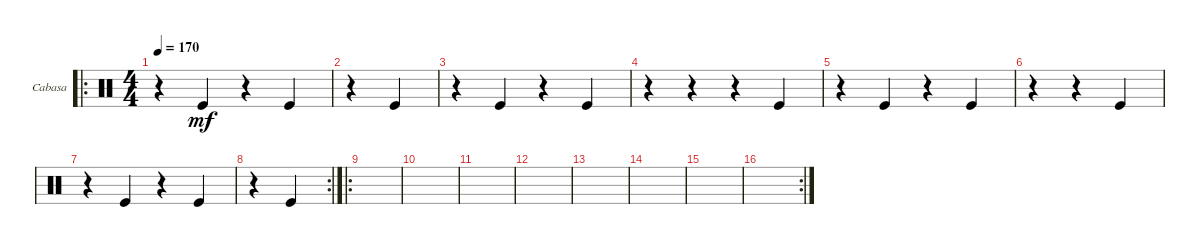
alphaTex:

\defaultSystemsLayout 4
\bracketExtendMode groupsimilarinstruments
\firstSystemTrackNameOrientation horizontal
\otherSystemsTrackNameOrientation horizontal
\track ("Cabasa" "Cabasa") {instrument percussion}
\staff {score}
\articulation defaults
\ro
\ts (4 4)
\tempo 170
\clef neutral
\ks c
r.4{dy mf} "Kick (hit)".4 r.4 "Kick (hit)".4 |
r.4 "Kick (hit)".4 |
r.4 "Kick (hit)".4 r.4 "Kick (hit)".4 |
r.4 r.4 r.4 "Kick (hit)".4 |
r.4 "Kick (hit)".4 r.4 "Kick (hit)".4 |
r.4 r.4 "Kick (hit)".4 |
r.4 "Kick (hit)".4 r.4 "Kick (hit)".4 |
\rc 2
r.4 "Kick (hit)".4 |
\ro
|
|
|
|
|
|
|
\rc 2
